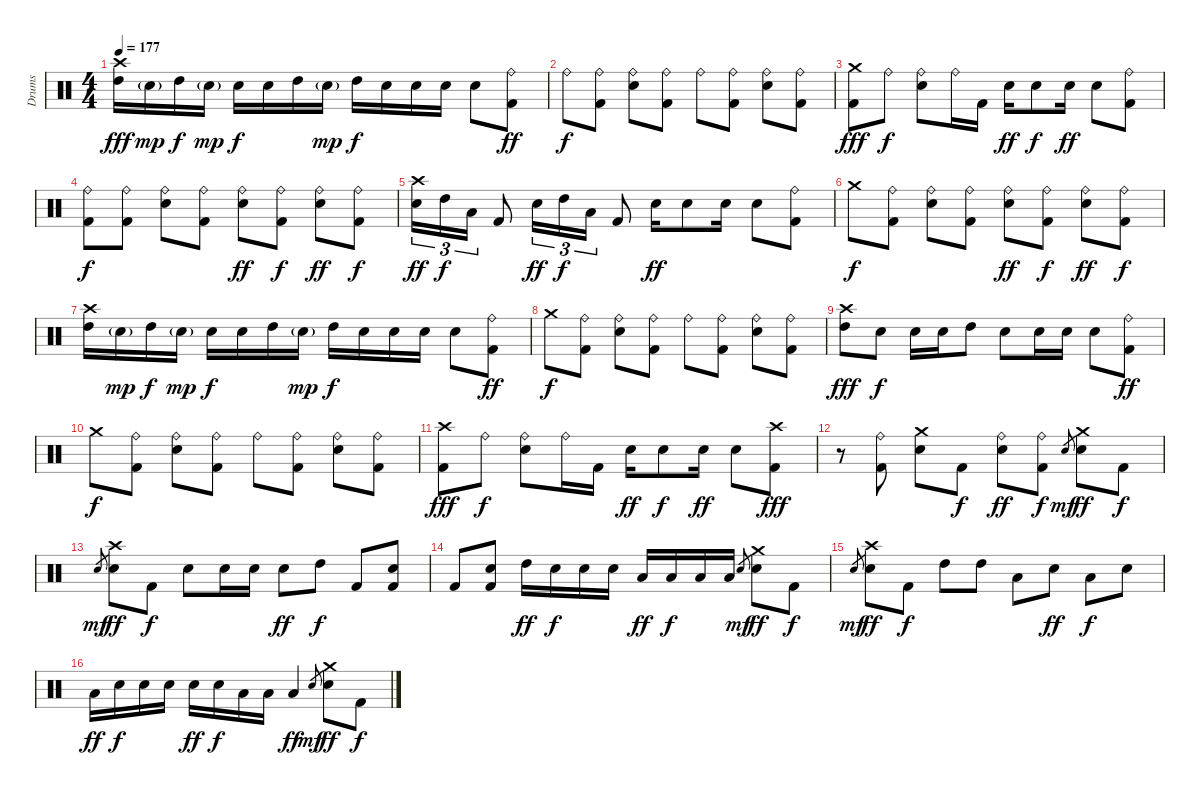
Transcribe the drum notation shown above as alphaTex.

\track ("Drums" "Drums") {instrument percussion}
\staff {score}
\articulation defaults
\ts (4 4)
\tempo 177
\clef neutral
\ks c
("Crash high (hit)" "High Tom (hit)").16{dy fff} "Electric Snare (hit)"{g}.16{dy mp} "High Tom (hit)".16{dy f} "Electric Snare (hit)"{g}.16{dy mp} "Electric Snare (hit)".16{dy f} "Electric Snare (hit)".16 "High Tom (hit)".16 "Electric Snare (hit)"{g}.16{dy mp} "High Tom (hit)".16{dy f} "Electric Snare (hit)".16 "Electric Snare (hit)".16 "Electric Snare (hit)".16 "Electric Snare (hit)".8 ("Ride (bell)" "Kick (hit) 2").8{dy ff} |
"Ride (bell)".8{dy f} ("Ride (bell)" "Kick (hit) 2").8 ("Ride (bell)" "Electric Snare (hit)").8 ("Ride (bell)" "Kick (hit) 2").8 "Ride (bell)".8 ("Ride (bell)" "Kick (hit) 2").8 ("Ride (bell)" "Electric Snare (hit)").8 ("Ride (bell)" "Kick (hit) 2").8 |
("Crash medium (hit)" "Kick (hit) 2").8{dy fff} "Ride (bell)".8{dy f} ("Ride (bell)" "Electric Snare (hit)").8 "Ride (bell)".16 "Kick (hit) 2".16 "Electric Snare (hit)".16{dy ff} "Electric Snare (hit)".8{dy f} "Electric Snare (hit)".16{dy ff} "Electric Snare (hit)".8 ("Ride (bell)" "Kick (hit) 2").8 |
("Ride (bell)" "Kick (hit) 2").8{dy f} ("Ride (bell)" "Kick (hit) 2").8 ("Ride (bell)" "Electric Snare (hit)").8 ("Ride (bell)" "Kick (hit) 2").8 ("Ride (bell)" "Electric Snare (hit)").8{dy ff} ("Ride (bell)" "Kick (hit) 2").8{dy f} ("Ride (bell)" "Electric Snare (hit)").8{dy ff} ("Ride (bell)" "Kick (hit) 2").8{dy f} |
("Crash high (hit)" "Electric Snare (hit)").16{tu (3 2) dy ff} "High Tom (hit)".16{tu (3 2) dy f} "Low Tom (hit)".16{tu (3 2)} "Kick (hit) 2".8 "Electric Snare (hit)".16{tu (3 2) dy ff} "High Tom (hit)".16{tu (3 2) dy f} "Low Tom (hit)".16{tu (3 2)} "Kick (hit) 2".8 "Electric Snare (hit)".16{dy ff} "Electric Snare (hit)".8 "Electric Snare (hit)".16 "Electric Snare (hit)".8 ("Ride (bell)" "Kick (hit) 2").8 |
"Crash medium (hit)".8{dy f} ("Ride (bell)" "Kick (hit) 2").8 ("Ride (bell)" "Electric Snare (hit)").8 ("Ride (bell)" "Kick (hit) 2").8 ("Ride (bell)" "Electric Snare (hit)").8{dy ff} ("Ride (bell)" "Kick (hit) 2").8{dy f} ("Ride (bell)" "Electric Snare (hit)").8{dy ff} ("Ride (bell)" "Kick (hit) 2").8{dy f} |
("Crash high (hit)" "High Tom (hit)").16 "Electric Snare (hit)"{g}.16{dy mp} "High Tom (hit)".16{dy f} "Electric Snare (hit)"{g}.16{dy mp} "Electric Snare (hit)".16{dy f} "Electric Snare (hit)".16 "High Tom (hit)".16 "Electric Snare (hit)"{g}.16{dy mp} "High Tom (hit)".16{dy f} "Electric Snare (hit)".16 "Electric Snare (hit)".16 "Electric Snare (hit)".16 "Electric Snare (hit)".8 ("Ride (bell)" "Kick (hit) 2").8{dy ff} |
"Crash medium (hit)".8{dy f} ("Ride (bell)" "Kick (hit) 2").8 ("Ride (bell)" "Electric Snare (hit)").8 ("Ride (bell)" "Kick (hit) 2").8 "Ride (bell)".8 ("Ride (bell)" "Kick (hit) 2").8 ("Ride (bell)" "Electric Snare (hit)").8 ("Ride (bell)" "Kick (hit) 2").8 |
("Crash high (hit)" "High Tom (hit)").8{dy fff} "Electric Snare (hit)".8{dy f} "Electric Snare (hit)".16 "Electric Snare (hit)".16 "High Tom (hit)".8 "Electric Snare (hit)".8 "Electric Snare (hit)".16 "Electric Snare (hit)".16 "Electric Snare (hit)".8 ("Ride (bell)" "Kick (hit) 2").8{dy ff} |
"Crash medium (hit)".8{dy f} ("Ride (bell)" "Kick (hit) 2").8 ("Ride (bell)" "Electric Snare (hit)").8 ("Ride (bell)" "Kick (hit) 2").8 "Ride (bell)".8 ("Ride (bell)" "Kick (hit) 2").8 ("Ride (bell)" "Electric Snare (hit)").8 ("Ride (bell)" "Kick (hit) 2").8 |
("Crash high (hit)" "Kick (hit) 2").8{dy fff} "Ride (bell)".8{dy f} ("Ride (bell)" "Electric Snare (hit)").8 "Ride (bell)".16 "Kick (hit) 2".16 "Electric Snare (hit)".16{dy ff} "Electric Snare (hit)".8{dy f} "Electric Snare (hit)".16{dy ff} "Electric Snare (hit)".8 ("Crash high (hit)" "Kick (hit) 2").8{dy fff} |
r.8 ("Ride (bell)" "Kick (hit) 2").8 ("Crash medium (hit)" "Electric Snare (hit)").8 "Kick (hit) 2".8{dy f} ("Ride (bell)" "Electric Snare (hit)").8{dy ff} ("Ride (bell)" "Kick (hit) 2").8{dy f} "Electric Snare (hit)".8{gr dy mf} ("Crash medium (hit)" "Electric Snare (hit)").8{dy ff} "Kick (hit) 2".8{dy f} |
"Electric Snare (hit)".8{gr dy mf} ("Crash high (hit)" "Electric Snare (hit)").8{dy ff} "Kick (hit) 2".8{dy f} "Electric Snare (hit)".8 "Electric Snare (hit)".16 "Electric Snare (hit)".16 "Electric Snare (hit)".8{dy ff} "High Tom (hit)".8{dy f} "Kick (hit) 2".8 ("Electric Snare (hit)" "Kick (hit) 2").8 |
"Kick (hit) 2".8 ("Electric Snare (hit)" "Kick (hit) 2").8 "High Tom (hit)".16{dy ff} "Electric Snare (hit)".16{dy f} "Electric Snare (hit)".16 "Electric Snare (hit)".16 "Low Tom (hit)".16{dy ff} "Low Tom (hit)".16{dy f} "Low Tom (hit)".16 "Low Tom (hit)".16 "Electric Snare (hit)".8{gr dy mf} ("Crash medium (hit)" "Electric Snare (hit)").8{dy ff} "Kick (hit) 2".8{dy f} |
"Electric Snare (hit)".8{gr dy mf} ("Crash high (hit)" "Electric Snare (hit)").8{dy ff} "Kick (hit) 2".8{dy f} "High Tom (hit)".8 "High Tom (hit)".8 "Low Tom (hit)".8 "Electric Snare (hit)".8{dy ff} "Low Tom (hit)".8{dy f} "Electric Snare (hit)".8 |
"Low Tom (hit)".16{dy ff} "Electric Snare (hit)".16{dy f} "Electric Snare (hit)".16 "Electric Snare (hit)".16 "Electric Snare (hit)".16{dy ff} "Electric Snare (hit)".16{dy f} "Low Tom (hit)".16 "Low Tom (hit)".16 "Low Tom (hit)".4{dy ff} "Electric Snare (hit)".8{gr dy mf} ("Crash medium (hit)" "Electric Snare (hit)").8{dy ff} "Kick (hit) 2".8{dy f}
